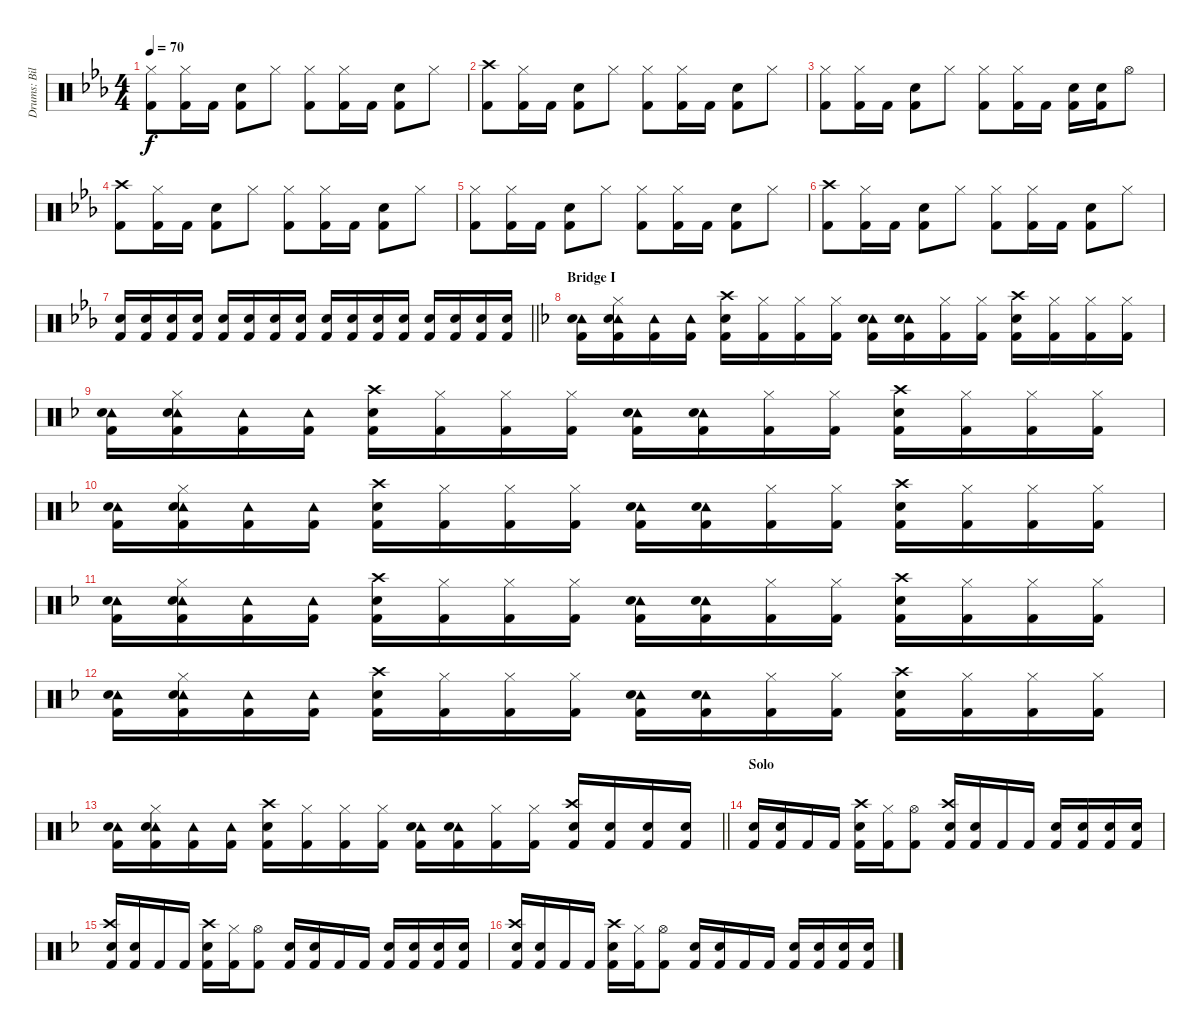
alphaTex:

\track ("Drums: Bill" "Drums: Bil") {instrument percussion}
\staff {score}
\articulation defaults
\ts (4 4)
\tempo 70
\clef neutral
\ks eb
("Hi-Hat (closed)" "Kick (hit) 2").8{dy f} ("Hi-Hat (closed)" "Kick (hit) 2").16 "Kick (hit) 2".16 ("Snare (hit) 2" "Kick (hit) 2").8 "Hi-Hat (closed)".8 ("Hi-Hat (closed)" "Kick (hit) 2").8 ("Hi-Hat (closed)" "Kick (hit) 2").16 "Kick (hit) 2".16 ("Snare (hit) 2" "Kick (hit) 2").8 "Hi-Hat (closed)".8 |
("Crash high (hit)" "Kick (hit) 2").8 ("Hi-Hat (closed)" "Kick (hit) 2").16 "Kick (hit) 2".16 ("Snare (hit) 2" "Kick (hit) 2").8 "Hi-Hat (closed)".8 ("Hi-Hat (closed)" "Kick (hit) 2").8 ("Hi-Hat (closed)" "Kick (hit) 2").16 "Kick (hit) 2".16 ("Snare (hit) 2" "Kick (hit) 2").8 "Hi-Hat (closed)".8 |
("Hi-Hat (closed)" "Kick (hit) 2").8 ("Hi-Hat (closed)" "Kick (hit) 2").16 "Kick (hit) 2".16 ("Snare (hit) 2" "Kick (hit) 2").8 "Hi-Hat (closed)".8 ("Hi-Hat (closed)" "Kick (hit) 2").8 ("Hi-Hat (closed)" "Kick (hit) 2").16 "Kick (hit) 2".16 ("Snare (hit) 2" "Kick (hit) 2").16 ("Snare (hit) 2" "Kick (hit) 2").16 "Hi-Hat (open)".8 |
("Crash high (hit)" "Kick (hit) 2").8 ("Hi-Hat (closed)" "Kick (hit) 2").16 "Kick (hit) 2".16 ("Snare (hit) 2" "Kick (hit) 2").8 "Hi-Hat (closed)".8 ("Hi-Hat (closed)" "Kick (hit) 2").8 ("Hi-Hat (closed)" "Kick (hit) 2").16 "Kick (hit) 2".16 ("Snare (hit) 2" "Kick (hit) 2").8 "Hi-Hat (closed)".8 |
("Hi-Hat (closed)" "Kick (hit) 2").8 ("Hi-Hat (closed)" "Kick (hit) 2").16 "Kick (hit) 2".16 ("Snare (hit) 2" "Kick (hit) 2").8 "Hi-Hat (closed)".8 ("Hi-Hat (closed)" "Kick (hit) 2").8 ("Hi-Hat (closed)" "Kick (hit) 2").16 "Kick (hit) 2".16 ("Snare (hit) 2" "Kick (hit) 2").8 "Hi-Hat (closed)".8 |
("Crash high (hit)" "Kick (hit) 2").8 ("Hi-Hat (closed)" "Kick (hit) 2").16 "Kick (hit) 2".16 ("Snare (hit) 2" "Kick (hit) 2").8 "Hi-Hat (closed)".8 ("Hi-Hat (closed)" "Kick (hit) 2").8 ("Hi-Hat (closed)" "Kick (hit) 2").16 "Kick (hit) 2".16 ("Snare (hit) 2" "Kick (hit) 2").8 "Hi-Hat (closed)".8 |
\barLineRight lightlight
("Snare (hit) 2" "Kick (hit) 2").16 ("Snare (hit) 2" "Kick (hit) 2").16 ("Snare (hit) 2" "Kick (hit) 2").16 ("Snare (hit) 2" "Kick (hit) 2").16 ("Snare (hit) 2" "Kick (hit) 2").16 ("Snare (hit) 2" "Kick (hit) 2").16 ("Snare (hit) 2" "Kick (hit) 2").16 ("Snare (hit) 2" "Kick (hit) 2").16 ("Snare (hit) 2" "Kick (hit) 2").16 ("Snare (hit) 2" "Kick (hit) 2").16 ("Snare (hit) 2" "Kick (hit) 2").16 ("Snare (hit) 2" "Kick (hit) 2").16 ("Snare (hit) 2" "Kick (hit) 2").16 ("Snare (hit) 2" "Kick (hit) 2").16 ("Snare (hit) 2" "Kick (hit) 2").16 ("Snare (hit) 2" "Kick (hit) 2").16 |
\section ("" "Bridge I")
\ks dminor
("Tambourine (hit)" "Electric Snare (hit)" "Kick (hit) 2").16 ("Tambourine (hit)" "Hi-Hat (closed)" "Electric Snare (hit)" "Kick (hit) 2").16 ("Tambourine (hit)" "Kick (hit) 2").16 ("Tambourine (hit)" "Kick (hit) 2").16 ("Crash high (hit)" "Electric Snare (hit)" "Kick (hit) 2").16 ("Hi-Hat (closed)" "Kick (hit) 2").16 ("Hi-Hat (closed)" "Kick (hit) 2").16 ("Hi-Hat (closed)" "Kick (hit) 2").16 ("Tambourine (hit)" "Electric Snare (hit)" "Kick (hit) 2").16 ("Tambourine (hit)" "Electric Snare (hit)" "Kick (hit) 2").16 ("Hi-Hat (closed)" "Kick (hit) 2").16 ("Hi-Hat (closed)" "Kick (hit) 2").16 ("Crash high (hit)" "Electric Snare (hit)" "Kick (hit) 2").16 ("Hi-Hat (closed)" "Kick (hit) 2").16 ("Hi-Hat (closed)" "Kick (hit) 2").16 ("Hi-Hat (closed)" "Kick (hit) 2").16 |
("Tambourine (hit)" "Electric Snare (hit)" "Kick (hit) 2").16 ("Tambourine (hit)" "Hi-Hat (closed)" "Electric Snare (hit)" "Kick (hit) 2").16 ("Tambourine (hit)" "Kick (hit) 2").16 ("Tambourine (hit)" "Kick (hit) 2").16 ("Crash high (hit)" "Electric Snare (hit)" "Kick (hit) 2").16 ("Hi-Hat (closed)" "Kick (hit) 2").16 ("Hi-Hat (closed)" "Kick (hit) 2").16 ("Hi-Hat (closed)" "Kick (hit) 2").16 ("Tambourine (hit)" "Electric Snare (hit)" "Kick (hit) 2").16 ("Tambourine (hit)" "Electric Snare (hit)" "Kick (hit) 2").16 ("Hi-Hat (closed)" "Kick (hit) 2").16 ("Hi-Hat (closed)" "Kick (hit) 2").16 ("Crash high (hit)" "Electric Snare (hit)" "Kick (hit) 2").16 ("Hi-Hat (closed)" "Kick (hit) 2").16 ("Hi-Hat (closed)" "Kick (hit) 2").16 ("Hi-Hat (closed)" "Kick (hit) 2").16 |
("Tambourine (hit)" "Electric Snare (hit)" "Kick (hit) 2").16 ("Tambourine (hit)" "Hi-Hat (closed)" "Electric Snare (hit)" "Kick (hit) 2").16 ("Tambourine (hit)" "Kick (hit) 2").16 ("Tambourine (hit)" "Kick (hit) 2").16 ("Crash high (hit)" "Electric Snare (hit)" "Kick (hit) 2").16 ("Hi-Hat (closed)" "Kick (hit) 2").16 ("Hi-Hat (closed)" "Kick (hit) 2").16 ("Hi-Hat (closed)" "Kick (hit) 2").16 ("Tambourine (hit)" "Electric Snare (hit)" "Kick (hit) 2").16 ("Tambourine (hit)" "Electric Snare (hit)" "Kick (hit) 2").16 ("Hi-Hat (closed)" "Kick (hit) 2").16 ("Hi-Hat (closed)" "Kick (hit) 2").16 ("Crash high (hit)" "Electric Snare (hit)" "Kick (hit) 2").16 ("Hi-Hat (closed)" "Kick (hit) 2").16 ("Hi-Hat (closed)" "Kick (hit) 2").16 ("Hi-Hat (closed)" "Kick (hit) 2").16 |
("Tambourine (hit)" "Electric Snare (hit)" "Kick (hit) 2").16 ("Tambourine (hit)" "Hi-Hat (closed)" "Electric Snare (hit)" "Kick (hit) 2").16 ("Tambourine (hit)" "Kick (hit) 2").16 ("Tambourine (hit)" "Kick (hit) 2").16 ("Crash high (hit)" "Electric Snare (hit)" "Kick (hit) 2").16 ("Hi-Hat (closed)" "Kick (hit) 2").16 ("Hi-Hat (closed)" "Kick (hit) 2").16 ("Hi-Hat (closed)" "Kick (hit) 2").16 ("Tambourine (hit)" "Electric Snare (hit)" "Kick (hit) 2").16 ("Tambourine (hit)" "Electric Snare (hit)" "Kick (hit) 2").16 ("Hi-Hat (closed)" "Kick (hit) 2").16 ("Hi-Hat (closed)" "Kick (hit) 2").16 ("Crash high (hit)" "Electric Snare (hit)" "Kick (hit) 2").16 ("Hi-Hat (closed)" "Kick (hit) 2").16 ("Hi-Hat (closed)" "Kick (hit) 2").16 ("Hi-Hat (closed)" "Kick (hit) 2").16 |
("Tambourine (hit)" "Electric Snare (hit)" "Kick (hit) 2").16 ("Tambourine (hit)" "Hi-Hat (closed)" "Electric Snare (hit)" "Kick (hit) 2").16 ("Tambourine (hit)" "Kick (hit) 2").16 ("Tambourine (hit)" "Kick (hit) 2").16 ("Crash high (hit)" "Electric Snare (hit)" "Kick (hit) 2").16 ("Hi-Hat (closed)" "Kick (hit) 2").16 ("Hi-Hat (closed)" "Kick (hit) 2").16 ("Hi-Hat (closed)" "Kick (hit) 2").16 ("Tambourine (hit)" "Electric Snare (hit)" "Kick (hit) 2").16 ("Tambourine (hit)" "Electric Snare (hit)" "Kick (hit) 2").16 ("Hi-Hat (closed)" "Kick (hit) 2").16 ("Hi-Hat (closed)" "Kick (hit) 2").16 ("Crash high (hit)" "Electric Snare (hit)" "Kick (hit) 2").16 ("Hi-Hat (closed)" "Kick (hit) 2").16 ("Hi-Hat (closed)" "Kick (hit) 2").16 ("Hi-Hat (closed)" "Kick (hit) 2").16 |
\barLineRight lightlight
("Tambourine (hit)" "Electric Snare (hit)" "Kick (hit) 2").16 ("Tambourine (hit)" "Hi-Hat (closed)" "Electric Snare (hit)" "Kick (hit) 2").16 ("Tambourine (hit)" "Kick (hit) 2").16 ("Tambourine (hit)" "Kick (hit) 2").16 ("Crash high (hit)" "Electric Snare (hit)" "Kick (hit) 2").16 ("Hi-Hat (closed)" "Kick (hit) 2").16 ("Hi-Hat (closed)" "Kick (hit) 2").16 ("Hi-Hat (closed)" "Kick (hit) 2").16 ("Tambourine (hit)" "Electric Snare (hit)" "Kick (hit) 2").16 ("Tambourine (hit)" "Electric Snare (hit)" "Kick (hit) 2").16 ("Hi-Hat (closed)" "Kick (hit) 2").16 ("Hi-Hat (closed)" "Kick (hit) 2").16 ("Crash high (hit)" "Electric Snare (hit)" "Kick (hit) 2").16 ("Electric Snare (hit)" "Kick (hit) 2").16 ("Electric Snare (hit)" "Kick (hit) 2").16 ("Electric Snare (hit)" "Kick (hit) 2").16 |
\section ("" "Solo")
("Electric Snare (hit)" "Kick (hit) 2").16 ("Electric Snare (hit)" "Kick (hit) 2").16 "Kick (hit) 2".16 "Kick (hit) 2".16 ("Crash high (hit)" "Snare (hit) 2" "Kick (hit) 2").16 ("Hi-Hat (closed)" "Kick (hit) 2").16 ("Hi-Hat (open)" "Kick (hit) 2").8 ("Crash high (hit)" "Electric Snare (hit)" "Kick (hit) 2").16 ("Electric Snare (hit)" "Kick (hit) 2").16 "Kick (hit) 2".16 "Kick (hit) 2".16 ("Electric Snare (hit)" "Kick (hit) 2").16 ("Electric Snare (hit)" "Kick (hit) 2").16 ("Electric Snare (hit)" "Kick (hit) 2").16 ("Electric Snare (hit)" "Kick (hit) 2").16 |
("Crash high (hit)" "Electric Snare (hit)" "Kick (hit) 2").16 ("Electric Snare (hit)" "Kick (hit) 2").16 "Kick (hit) 2".16 "Kick (hit) 2".16 ("Crash high (hit)" "Snare (hit) 2" "Kick (hit) 2").16 ("Hi-Hat (closed)" "Kick (hit) 2").16 ("Hi-Hat (open)" "Kick (hit) 2").8 ("Electric Snare (hit)" "Kick (hit) 2").16 ("Electric Snare (hit)" "Kick (hit) 2").16 "Kick (hit) 2".16 "Kick (hit) 2".16 ("Electric Snare (hit)" "Kick (hit) 2").16 ("Electric Snare (hit)" "Kick (hit) 2").16 ("Electric Snare (hit)" "Kick (hit) 2").16 ("Electric Snare (hit)" "Kick (hit) 2").16 |
("Crash high (hit)" "Electric Snare (hit)" "Kick (hit) 2").16 ("Electric Snare (hit)" "Kick (hit) 2").16 "Kick (hit) 2".16 "Kick (hit) 2".16 ("Crash high (hit)" "Snare (hit) 2" "Kick (hit) 2").16 ("Hi-Hat (closed)" "Kick (hit) 2").16 ("Hi-Hat (open)" "Kick (hit) 2").8 ("Electric Snare (hit)" "Kick (hit) 2").16 ("Electric Snare (hit)" "Kick (hit) 2").16 "Kick (hit) 2".16 "Kick (hit) 2".16 ("Electric Snare (hit)" "Kick (hit) 2").16 ("Electric Snare (hit)" "Kick (hit) 2").16 ("Electric Snare (hit)" "Kick (hit) 2").16 ("Electric Snare (hit)" "Kick (hit) 2").16
